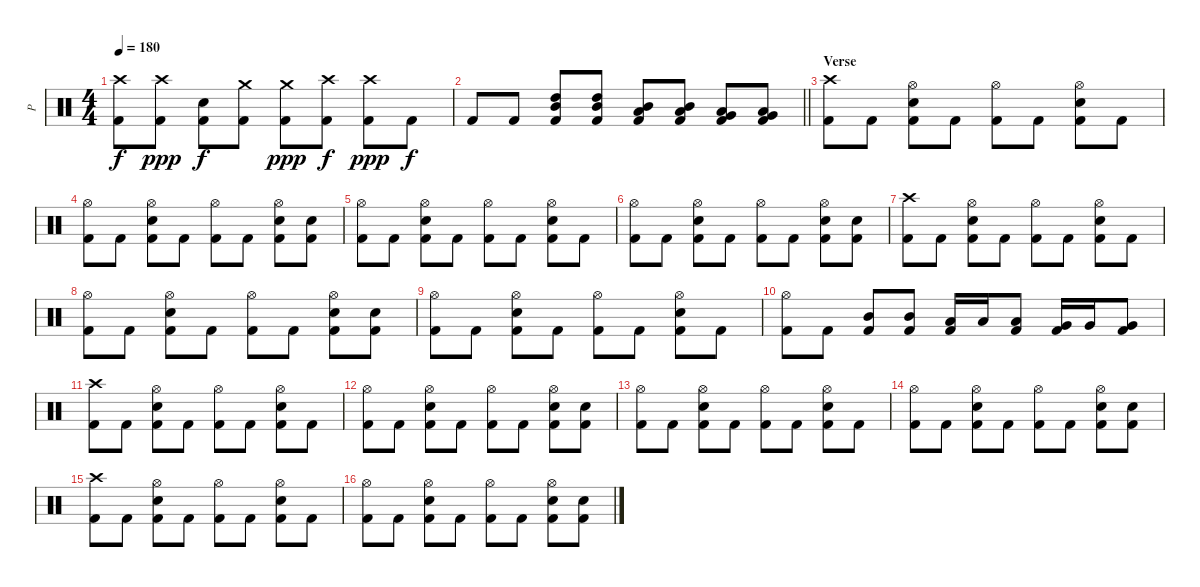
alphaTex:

\track ("P" "P") {instrument percussion}
\staff {score}
\articulation defaults
\ts (4 4)
\tempo 180
\clef neutral
\ks c
("Crash high (hit)" "Kick (hit) 2").8{dy f} ("Crash high (hit)" "Kick (hit) 2").8{dy ppp} ("Electric Snare (hit)" "Kick (hit) 2").8{dy f} ("Crash medium (hit)" "Kick (hit) 2").8 ("Crash medium (hit)" "Kick (hit) 2").8{dy ppp} ("Crash high (hit)" "Kick (hit) 2").8{dy f} ("Crash high (hit)" "Kick (hit) 2").8{dy ppp} "Kick (hit) 2".8{dy f} |
\barLineRight lightlight "Kick (hit) 2".8 "Kick (hit) 2".8
("High Tom (hit)" "Mid Tom (hit)" "Kick (hit) 2").8 ("High Tom (hit)" "Mid Tom (hit)" "Kick (hit) 2").8 ("Mid Tom (hit)" "Low Tom (hit)" "Kick (hit) 2").8 ("Mid Tom (hit)" "Low Tom (hit)" "Kick (hit) 2").8 ("Low Tom (hit)" "Very Low Tom (hit)" "Kick (hit) 2").8 ("Low Tom (hit)" "Very Low Tom (hit)" "Kick (hit) 2").8 |
\section ("" "Verse")
("Crash high (hit)" "Kick (hit) 2").8 "Kick (hit) 2".8 ("Hi-Hat (open)" "Electric Snare (hit)" "Kick (hit) 2").8 "Kick (hit) 2".8 ("Hi-Hat (open)" "Kick (hit) 2").8 "Kick (hit) 2".8 ("Hi-Hat (open)" "Electric Snare (hit)" "Kick (hit) 2").8 "Kick (hit) 2".8 |
("Hi-Hat (open)" "Kick (hit) 2").8 "Kick (hit) 2".8 ("Hi-Hat (open)" "Electric Snare (hit)" "Kick (hit) 2").8 "Kick (hit) 2".8 ("Hi-Hat (open)" "Kick (hit) 2").8 "Kick (hit) 2".8 ("Hi-Hat (open)" "Electric Snare (hit)" "Kick (hit) 2").8 ("Electric Snare (hit)" "Kick (hit) 2").8 |
("Hi-Hat (open)" "Kick (hit) 2").8 "Kick (hit) 2".8 ("Hi-Hat (open)" "Electric Snare (hit)" "Kick (hit) 2").8 "Kick (hit) 2".8 ("Hi-Hat (open)" "Kick (hit) 2").8 "Kick (hit) 2".8 ("Hi-Hat (open)" "Electric Snare (hit)" "Kick (hit) 2").8 "Kick (hit) 2".8 |
("Hi-Hat (open)" "Kick (hit) 2").8 "Kick (hit) 2".8 ("Hi-Hat (open)" "Electric Snare (hit)" "Kick (hit) 2").8 "Kick (hit) 2".8 ("Hi-Hat (open)" "Kick (hit) 2").8 "Kick (hit) 2".8 ("Hi-Hat (open)" "Electric Snare (hit)" "Kick (hit) 2").8 ("Electric Snare (hit)" "Kick (hit) 2").8 |
("Crash high (hit)" "Kick (hit) 2").8 "Kick (hit) 2".8 ("Hi-Hat (open)" "Electric Snare (hit)" "Kick (hit) 2").8 "Kick (hit) 2".8 ("Hi-Hat (open)" "Kick (hit) 2").8 "Kick (hit) 2".8 ("Hi-Hat (open)" "Electric Snare (hit)" "Kick (hit) 2").8 "Kick (hit) 2".8 |
("Hi-Hat (open)" "Kick (hit) 2").8 "Kick (hit) 2".8 ("Hi-Hat (open)" "Electric Snare (hit)" "Kick (hit) 2").8 "Kick (hit) 2".8 ("Hi-Hat (open)" "Kick (hit) 2").8 "Kick (hit) 2".8 ("Hi-Hat (open)" "Electric Snare (hit)" "Kick (hit) 2").8 ("Electric Snare (hit)" "Kick (hit) 2").8 |
("Hi-Hat (open)" "Kick (hit) 2").8 "Kick (hit) 2".8 ("Hi-Hat (open)" "Electric Snare (hit)" "Kick (hit) 2").8 "Kick (hit) 2".8 ("Hi-Hat (open)" "Kick (hit) 2").8 "Kick (hit) 2".8 ("Hi-Hat (open)" "Electric Snare (hit)" "Kick (hit) 2").8 "Kick (hit) 2".8 |
("Hi-Hat (open)" "Kick (hit) 2").8 "Kick (hit) 2".8 ("Mid Tom (hit)" "Kick (hit) 2").8 ("Mid Tom (hit)" "Kick (hit) 2").8 ("Low Tom (hit)" "Kick (hit) 2").16 "Low Tom (hit)".16 ("Low Tom (hit)" "Kick (hit) 2").8 ("Very Low Tom (hit)" "Kick (hit) 2").16 "Very Low Tom (hit)".16 ("Very Low Tom (hit)" "Kick (hit) 2").8 |
("Crash high (hit)" "Kick (hit) 2").8 "Kick (hit) 2".8 ("Hi-Hat (open)" "Electric Snare (hit)" "Kick (hit) 2").8 "Kick (hit) 2".8 ("Hi-Hat (open)" "Kick (hit) 2").8 "Kick (hit) 2".8 ("Hi-Hat (open)" "Electric Snare (hit)" "Kick (hit) 2").8 "Kick (hit) 2".8 |
("Hi-Hat (open)" "Kick (hit) 2").8 "Kick (hit) 2".8 ("Hi-Hat (open)" "Electric Snare (hit)" "Kick (hit) 2").8 "Kick (hit) 2".8 ("Hi-Hat (open)" "Kick (hit) 2").8 "Kick (hit) 2".8 ("Hi-Hat (open)" "Electric Snare (hit)" "Kick (hit) 2").8 ("Electric Snare (hit)" "Kick (hit) 2").8 |
("Hi-Hat (open)" "Kick (hit) 2").8 "Kick (hit) 2".8 ("Hi-Hat (open)" "Electric Snare (hit)" "Kick (hit) 2").8 "Kick (hit) 2".8 ("Hi-Hat (open)" "Kick (hit) 2").8 "Kick (hit) 2".8 ("Hi-Hat (open)" "Electric Snare (hit)" "Kick (hit) 2").8 "Kick (hit) 2".8 |
("Hi-Hat (open)" "Kick (hit) 2").8 "Kick (hit) 2".8 ("Hi-Hat (open)" "Electric Snare (hit)" "Kick (hit) 2").8 "Kick (hit) 2".8 ("Hi-Hat (open)" "Kick (hit) 2").8 "Kick (hit) 2".8 ("Hi-Hat (open)" "Electric Snare (hit)" "Kick (hit) 2").8 ("Electric Snare (hit)" "Kick (hit) 2").8 |
("Crash high (hit)" "Kick (hit) 2").8 "Kick (hit) 2".8 ("Hi-Hat (open)" "Electric Snare (hit)" "Kick (hit) 2").8 "Kick (hit) 2".8 ("Hi-Hat (open)" "Kick (hit) 2").8 "Kick (hit) 2".8 ("Hi-Hat (open)" "Electric Snare (hit)" "Kick (hit) 2").8 "Kick (hit) 2".8 |
("Hi-Hat (open)" "Kick (hit) 2").8 "Kick (hit) 2".8 ("Hi-Hat (open)" "Electric Snare (hit)" "Kick (hit) 2").8 "Kick (hit) 2".8 ("Hi-Hat (open)" "Kick (hit) 2").8 "Kick (hit) 2".8 ("Hi-Hat (open)" "Electric Snare (hit)" "Kick (hit) 2").8 ("Electric Snare (hit)" "Kick (hit) 2").8
